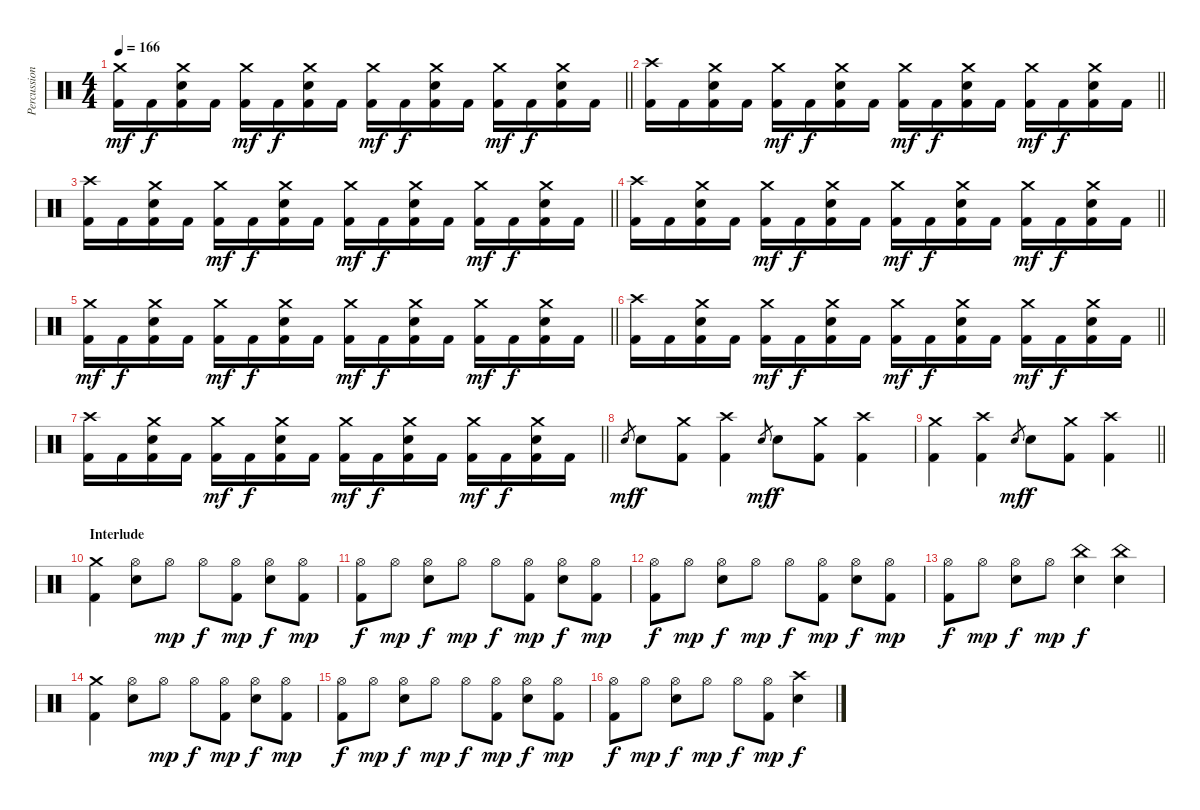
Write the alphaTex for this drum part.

\track ("Percussion" "Percussion") {instrument percussion}
\staff {score}
\articulation defaults
\ts (4 4)
\tempo 166
\clef neutral
\barLineRight lightlight
\ks c
("Crash medium (hit)" "Kick (hit) 2").16{dy mf} "Kick (hit) 2".16{dy f} ("Crash medium (hit)" "Electric Snare (hit)" "Kick (hit) 2").16 "Kick (hit) 2".16 ("Crash medium (hit)" "Kick (hit) 2").16{dy mf} "Kick (hit) 2".16{dy f} ("Crash medium (hit)" "Electric Snare (hit)" "Kick (hit) 2").16 "Kick (hit) 2".16 ("Crash medium (hit)" "Kick (hit) 2").16{dy mf} "Kick (hit) 2".16{dy f} ("Crash medium (hit)" "Electric Snare (hit)" "Kick (hit) 2").16 "Kick (hit) 2".16 ("Crash medium (hit)" "Kick (hit) 2").16{dy mf} "Kick (hit) 2".16{dy f} ("Crash medium (hit)" "Electric Snare (hit)" "Kick (hit) 2").16 "Kick (hit) 2".16 |
\barLineRight lightlight
("Crash high (hit)" "Kick (hit) 2").16 "Kick (hit) 2".16 ("Crash medium (hit)" "Electric Snare (hit)" "Kick (hit) 2").16 "Kick (hit) 2".16 ("Crash medium (hit)" "Kick (hit) 2").16{dy mf} "Kick (hit) 2".16{dy f} ("Crash medium (hit)" "Electric Snare (hit)" "Kick (hit) 2").16 "Kick (hit) 2".16 ("Crash medium (hit)" "Kick (hit) 2").16{dy mf} "Kick (hit) 2".16{dy f} ("Crash medium (hit)" "Electric Snare (hit)" "Kick (hit) 2").16 "Kick (hit) 2".16 ("Crash medium (hit)" "Kick (hit) 2").16{dy mf} "Kick (hit) 2".16{dy f} ("Crash medium (hit)" "Electric Snare (hit)" "Kick (hit) 2").16 "Kick (hit) 2".16 |
\barLineRight lightlight
("Crash high (hit)" "Kick (hit) 2").16 "Kick (hit) 2".16 ("Crash medium (hit)" "Electric Snare (hit)" "Kick (hit) 2").16 "Kick (hit) 2".16 ("Crash medium (hit)" "Kick (hit) 2").16{dy mf} "Kick (hit) 2".16{dy f} ("Crash medium (hit)" "Electric Snare (hit)" "Kick (hit) 2").16 "Kick (hit) 2".16 ("Crash medium (hit)" "Kick (hit) 2").16{dy mf} "Kick (hit) 2".16{dy f} ("Crash medium (hit)" "Electric Snare (hit)" "Kick (hit) 2").16 "Kick (hit) 2".16 ("Crash medium (hit)" "Kick (hit) 2").16{dy mf} "Kick (hit) 2".16{dy f} ("Crash medium (hit)" "Electric Snare (hit)" "Kick (hit) 2").16 "Kick (hit) 2".16 |
\barLineRight lightlight
("Crash high (hit)" "Kick (hit) 2").16 "Kick (hit) 2".16 ("Crash medium (hit)" "Electric Snare (hit)" "Kick (hit) 2").16 "Kick (hit) 2".16 ("Crash medium (hit)" "Kick (hit) 2").16{dy mf} "Kick (hit) 2".16{dy f} ("Crash medium (hit)" "Electric Snare (hit)" "Kick (hit) 2").16 "Kick (hit) 2".16 ("Crash medium (hit)" "Kick (hit) 2").16{dy mf} "Kick (hit) 2".16{dy f} ("Crash medium (hit)" "Electric Snare (hit)" "Kick (hit) 2").16 "Kick (hit) 2".16 ("Crash medium (hit)" "Kick (hit) 2").16{dy mf} "Kick (hit) 2".16{dy f} ("Crash medium (hit)" "Electric Snare (hit)" "Kick (hit) 2").16 "Kick (hit) 2".16 |
\barLineRight lightlight
("Crash medium (hit)" "Kick (hit) 2").16{dy mf} "Kick (hit) 2".16{dy f} ("Crash medium (hit)" "Electric Snare (hit)" "Kick (hit) 2").16 "Kick (hit) 2".16 ("Crash medium (hit)" "Kick (hit) 2").16{dy mf} "Kick (hit) 2".16{dy f} ("Crash medium (hit)" "Electric Snare (hit)" "Kick (hit) 2").16 "Kick (hit) 2".16 ("Crash medium (hit)" "Kick (hit) 2").16{dy mf} "Kick (hit) 2".16{dy f} ("Crash medium (hit)" "Electric Snare (hit)" "Kick (hit) 2").16 "Kick (hit) 2".16 ("Crash medium (hit)" "Kick (hit) 2").16{dy mf} "Kick (hit) 2".16{dy f} ("Crash medium (hit)" "Electric Snare (hit)" "Kick (hit) 2").16 "Kick (hit) 2".16 |
\barLineRight lightlight
("Crash high (hit)" "Kick (hit) 2").16 "Kick (hit) 2".16 ("Crash medium (hit)" "Electric Snare (hit)" "Kick (hit) 2").16 "Kick (hit) 2".16 ("Crash medium (hit)" "Kick (hit) 2").16{dy mf} "Kick (hit) 2".16{dy f} ("Crash medium (hit)" "Electric Snare (hit)" "Kick (hit) 2").16 "Kick (hit) 2".16 ("Crash medium (hit)" "Kick (hit) 2").16{dy mf} "Kick (hit) 2".16{dy f} ("Crash medium (hit)" "Electric Snare (hit)" "Kick (hit) 2").16 "Kick (hit) 2".16 ("Crash medium (hit)" "Kick (hit) 2").16{dy mf} "Kick (hit) 2".16{dy f} ("Crash medium (hit)" "Electric Snare (hit)" "Kick (hit) 2").16 "Kick (hit) 2".16 |
\barLineRight lightlight
("Crash high (hit)" "Kick (hit) 2").16 "Kick (hit) 2".16 ("Crash medium (hit)" "Electric Snare (hit)" "Kick (hit) 2").16 "Kick (hit) 2".16 ("Crash medium (hit)" "Kick (hit) 2").16{dy mf} "Kick (hit) 2".16{dy f} ("Crash medium (hit)" "Electric Snare (hit)" "Kick (hit) 2").16 "Kick (hit) 2".16 ("Crash medium (hit)" "Kick (hit) 2").16{dy mf} "Kick (hit) 2".16{dy f} ("Crash medium (hit)" "Electric Snare (hit)" "Kick (hit) 2").16 "Kick (hit) 2".16 ("Crash medium (hit)" "Kick (hit) 2").16{dy mf} "Kick (hit) 2".16{dy f} ("Crash medium (hit)" "Electric Snare (hit)" "Kick (hit) 2").16 "Kick (hit) 2".16 |
"Electric Snare (hit)".8{gr dy mf} "Electric Snare (hit)".8{dy f} ("Crash medium (hit)" "Kick (hit) 2").8 ("Crash high (hit)" "Kick (hit) 2").4 "Electric Snare (hit)".8{gr dy mf} "Electric Snare (hit)".8{dy f} ("Crash medium (hit)" "Kick (hit) 2").8 ("Crash high (hit)" "Kick (hit) 2").4 |
\barLineRight lightlight
("Crash medium (hit)" "Kick (hit) 2").4 ("Crash high (hit)" "Kick (hit) 2").4 "Electric Snare (hit)".8{gr dy mf} "Electric Snare (hit)".8{dy f} ("Crash medium (hit)" "Kick (hit) 2").8 ("Crash high (hit)" "Kick (hit) 2").4 |
\section ("" "Interlude")
("Crash medium (hit)" "Kick (hit) 2").4 ("Hi-Hat (open)" "Electric Snare (hit)").8 "Hi-Hat (open)".8{dy mp} "Hi-Hat (open)".8{dy f} ("Hi-Hat (open)" "Kick (hit) 2").8{dy mp} ("Hi-Hat (open)" "Electric Snare (hit)").8{dy f} ("Hi-Hat (open)" "Kick (hit) 2").8{dy mp} |
("Hi-Hat (open)" "Kick (hit) 2").8{dy f} "Hi-Hat (open)".8{dy mp} ("Hi-Hat (open)" "Electric Snare (hit)").8{dy f} "Hi-Hat (open)".8{dy mp} "Hi-Hat (open)".8{dy f} ("Hi-Hat (open)" "Kick (hit) 2").8{dy mp} ("Hi-Hat (open)" "Electric Snare (hit)").8{dy f} ("Hi-Hat (open)" "Kick (hit) 2").8{dy mp} |
("Hi-Hat (open)" "Kick (hit) 2").8{dy f} "Hi-Hat (open)".8{dy mp} ("Hi-Hat (open)" "Electric Snare (hit)").8{dy f} "Hi-Hat (open)".8{dy mp} "Hi-Hat (open)".8{dy f} ("Hi-Hat (open)" "Kick (hit) 2").8{dy mp} ("Hi-Hat (open)" "Electric Snare (hit)").8{dy f} ("Hi-Hat (open)" "Kick (hit) 2").8{dy mp} |
("Hi-Hat (open)" "Kick (hit) 2").8{dy f} "Hi-Hat (open)".8{dy mp} ("Hi-Hat (open)" "Electric Snare (hit)").8{dy f} "Hi-Hat (open)".8{dy mp} ("China (hit)" "Electric Snare (hit)").4{dy f} ("China (hit)" "Electric Snare (hit)").4 |
("Crash medium (hit)" "Kick (hit) 2").4 ("Hi-Hat (open)" "Electric Snare (hit)").8 "Hi-Hat (open)".8{dy mp} "Hi-Hat (open)".8{dy f} ("Hi-Hat (open)" "Kick (hit) 2").8{dy mp} ("Hi-Hat (open)" "Electric Snare (hit)").8{dy f} ("Hi-Hat (open)" "Kick (hit) 2").8{dy mp} |
("Hi-Hat (open)" "Kick (hit) 2").8{dy f} "Hi-Hat (open)".8{dy mp} ("Hi-Hat (open)" "Electric Snare (hit)").8{dy f} "Hi-Hat (open)".8{dy mp} "Hi-Hat (open)".8{dy f} ("Hi-Hat (open)" "Kick (hit) 2").8{dy mp} ("Hi-Hat (open)" "Electric Snare (hit)").8{dy f} ("Hi-Hat (open)" "Kick (hit) 2").8{dy mp} |
("Hi-Hat (open)" "Kick (hit) 2").8{dy f} "Hi-Hat (open)".8{dy mp} ("Hi-Hat (open)" "Electric Snare (hit)").8{dy f} "Hi-Hat (open)".8{dy mp} "Hi-Hat (open)".8{dy f} ("Hi-Hat (open)" "Kick (hit) 2").8{dy mp} ("Crash high (hit)" "Electric Snare (hit)").4{dy f}
